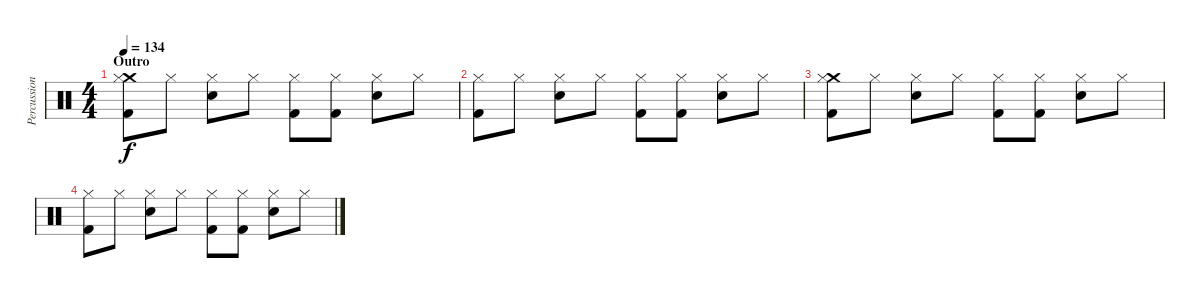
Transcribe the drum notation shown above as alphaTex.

\track ("Percussion" "Percussion") {instrument percussion}
\staff {score}
\articulation defaults
\ts (4 4)
\section ("" "Outro")
\tempo 134
\clef neutral
\ks c
("Crash medium (hit)" "Hi-Hat (closed)" "Kick (hit) 2").8{dy f} "Hi-Hat (closed)".8 ("Hi-Hat (closed)" "Snare (hit) 2").8 "Hi-Hat (closed)".8 ("Hi-Hat (closed)" "Kick (hit) 2").8 ("Hi-Hat (closed)" "Kick (hit) 2").8 ("Hi-Hat (closed)" "Snare (hit) 2").8 "Hi-Hat (closed)".8 |
("Hi-Hat (closed)" "Kick (hit) 2").8 "Hi-Hat (closed)".8 ("Hi-Hat (closed)" "Snare (hit) 2").8 "Hi-Hat (closed)".8 ("Hi-Hat (closed)" "Kick (hit) 2").8 ("Hi-Hat (closed)" "Kick (hit) 2").8 ("Hi-Hat (closed)" "Snare (hit) 2").8 "Hi-Hat (closed)".8 |
("Crash medium (hit)" "Hi-Hat (closed)" "Kick (hit) 2").8 "Hi-Hat (closed)".8 ("Hi-Hat (closed)" "Snare (hit) 2").8 "Hi-Hat (closed)".8 ("Hi-Hat (closed)" "Kick (hit) 2").8 ("Hi-Hat (closed)" "Kick (hit) 2").8 ("Hi-Hat (closed)" "Snare (hit) 2").8 "Hi-Hat (closed)".8 |
("Hi-Hat (closed)" "Kick (hit) 2").8 "Hi-Hat (closed)".8 ("Hi-Hat (closed)" "Snare (hit) 2").8 "Hi-Hat (closed)".8 ("Hi-Hat (closed)" "Kick (hit) 2").8 ("Hi-Hat (closed)" "Kick (hit) 2").8 ("Hi-Hat (closed)" "Snare (hit) 2").8 "Hi-Hat (closed)".8
